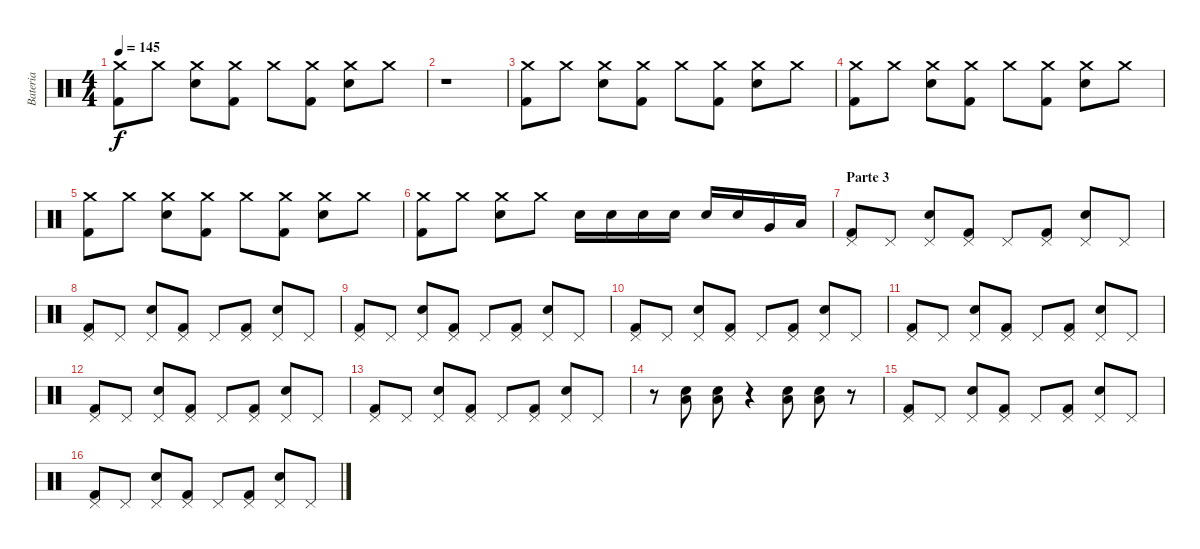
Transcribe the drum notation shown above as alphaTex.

\track ("Bateria" "Bateria") {instrument percussion}
\staff {score}
\articulation defaults
\ts (4 4)
\tempo 145
\clef neutral
\ks c
("Kick (hit) 2" "Crash medium (hit)").8{dy f} "Crash medium (hit)".8 ("Snare (hit) 2" "Crash medium (hit)").8 ("Kick (hit) 2" "Crash medium (hit)").8 "Crash medium (hit)".8 ("Kick (hit) 2" "Crash medium (hit)").8 ("Snare (hit) 2" "Crash medium (hit)").8 "Crash medium (hit)".8 |
r.1 |
("Kick (hit) 2" "Crash medium (hit)").8 "Crash medium (hit)".8 ("Snare (hit) 2" "Crash medium (hit)").8 ("Kick (hit) 2" "Crash medium (hit)").8 "Crash medium (hit)".8 ("Kick (hit) 2" "Crash medium (hit)").8 ("Snare (hit) 2" "Crash medium (hit)").8 "Crash medium (hit)".8 |
("Kick (hit) 2" "Crash medium (hit)").8 "Crash medium (hit)".8 ("Snare (hit) 2" "Crash medium (hit)").8 ("Kick (hit) 2" "Crash medium (hit)").8 "Crash medium (hit)".8 ("Kick (hit) 2" "Crash medium (hit)").8 ("Snare (hit) 2" "Crash medium (hit)").8 "Crash medium (hit)".8 |
("Kick (hit) 2" "Crash medium (hit)").8 "Crash medium (hit)".8 ("Snare (hit) 2" "Crash medium (hit)").8 ("Kick (hit) 2" "Crash medium (hit)").8 "Crash medium (hit)".8 ("Kick (hit) 2" "Crash medium (hit)").8 ("Snare (hit) 2" "Crash medium (hit)").8 "Crash medium (hit)".8 |
("Kick (hit) 2" "Crash medium (hit)").8 "Crash medium (hit)".8 ("Snare (hit) 2" "Crash medium (hit)").8 "Crash medium (hit)".8 "Snare (hit) 2".16 "Snare (hit) 2".16 "Snare (hit) 2".16 "Snare (hit) 2".16 "Snare (hit) 2".16 "Electric Snare (hit)".16 "Very Low Tom (hit)".16 "Low Floor Tom (hit)".16 |
\section ("" "Parte 3")
("Kick (hit) 2" "Pedal Hi-Hat (hit)").8 "Pedal Hi-Hat (hit)".8 ("Pedal Hi-Hat (hit)" "Snare (hit) 2").8 ("Kick (hit) 2" "Pedal Hi-Hat (hit)").8 "Pedal Hi-Hat (hit)".8 ("Kick (hit) 2" "Pedal Hi-Hat (hit)").8 ("Pedal Hi-Hat (hit)" "Snare (hit) 2").8 "Pedal Hi-Hat (hit)".8 |
("Kick (hit) 2" "Pedal Hi-Hat (hit)").8 "Pedal Hi-Hat (hit)".8 ("Pedal Hi-Hat (hit)" "Snare (hit) 2").8 ("Kick (hit) 2" "Pedal Hi-Hat (hit)").8 "Pedal Hi-Hat (hit)".8 ("Kick (hit) 2" "Pedal Hi-Hat (hit)").8 ("Pedal Hi-Hat (hit)" "Snare (hit) 2").8 "Pedal Hi-Hat (hit)".8 |
("Kick (hit) 2" "Pedal Hi-Hat (hit)").8 "Pedal Hi-Hat (hit)".8 ("Pedal Hi-Hat (hit)" "Snare (hit) 2").8 ("Kick (hit) 2" "Pedal Hi-Hat (hit)").8 "Pedal Hi-Hat (hit)".8 ("Kick (hit) 2" "Pedal Hi-Hat (hit)").8 ("Pedal Hi-Hat (hit)" "Snare (hit) 2").8 "Pedal Hi-Hat (hit)".8 |
("Kick (hit) 2" "Pedal Hi-Hat (hit)").8 "Pedal Hi-Hat (hit)".8 ("Pedal Hi-Hat (hit)" "Snare (hit) 2").8 ("Kick (hit) 2" "Pedal Hi-Hat (hit)").8 "Pedal Hi-Hat (hit)".8 ("Kick (hit) 2" "Pedal Hi-Hat (hit)").8 ("Pedal Hi-Hat (hit)" "Snare (hit) 2").8 "Pedal Hi-Hat (hit)".8 |
("Kick (hit) 2" "Pedal Hi-Hat (hit)").8 "Pedal Hi-Hat (hit)".8 ("Pedal Hi-Hat (hit)" "Snare (hit) 2").8 ("Kick (hit) 2" "Pedal Hi-Hat (hit)").8 "Pedal Hi-Hat (hit)".8 ("Kick (hit) 2" "Pedal Hi-Hat (hit)").8 ("Pedal Hi-Hat (hit)" "Snare (hit) 2").8 "Pedal Hi-Hat (hit)".8 |
("Kick (hit) 2" "Pedal Hi-Hat (hit)").8 "Pedal Hi-Hat (hit)".8 ("Pedal Hi-Hat (hit)" "Snare (hit) 2").8 ("Kick (hit) 2" "Pedal Hi-Hat (hit)").8 "Pedal Hi-Hat (hit)".8 ("Kick (hit) 2" "Pedal Hi-Hat (hit)").8 ("Pedal Hi-Hat (hit)" "Snare (hit) 2").8 "Pedal Hi-Hat (hit)".8 |
("Kick (hit) 2" "Pedal Hi-Hat (hit)").8 "Pedal Hi-Hat (hit)".8 ("Pedal Hi-Hat (hit)" "Snare (hit) 2").8 ("Kick (hit) 2" "Pedal Hi-Hat (hit)").8 "Pedal Hi-Hat (hit)".8 ("Kick (hit) 2" "Pedal Hi-Hat (hit)").8 ("Pedal Hi-Hat (hit)" "Snare (hit) 2").8 "Pedal Hi-Hat (hit)".8 |
r.8 ("Snare (hit) 2" "Low Floor Tom (hit)").8 ("Snare (hit) 2" "Low Floor Tom (hit)").8 r.4 ("Snare (hit) 2" "Low Floor Tom (hit)").8 ("Snare (hit) 2" "Low Floor Tom (hit)").8 r.8 |
("Kick (hit) 2" "Pedal Hi-Hat (hit)").8 "Pedal Hi-Hat (hit)".8 ("Pedal Hi-Hat (hit)" "Snare (hit) 2").8 ("Kick (hit) 2" "Pedal Hi-Hat (hit)").8 "Pedal Hi-Hat (hit)".8 ("Kick (hit) 2" "Pedal Hi-Hat (hit)").8 ("Pedal Hi-Hat (hit)" "Snare (hit) 2").8 "Pedal Hi-Hat (hit)".8 |
("Kick (hit) 2" "Pedal Hi-Hat (hit)").8 "Pedal Hi-Hat (hit)".8 ("Pedal Hi-Hat (hit)" "Snare (hit) 2").8 ("Kick (hit) 2" "Pedal Hi-Hat (hit)").8 "Pedal Hi-Hat (hit)".8 ("Kick (hit) 2" "Pedal Hi-Hat (hit)").8 ("Pedal Hi-Hat (hit)" "Snare (hit) 2").8 "Pedal Hi-Hat (hit)".8
